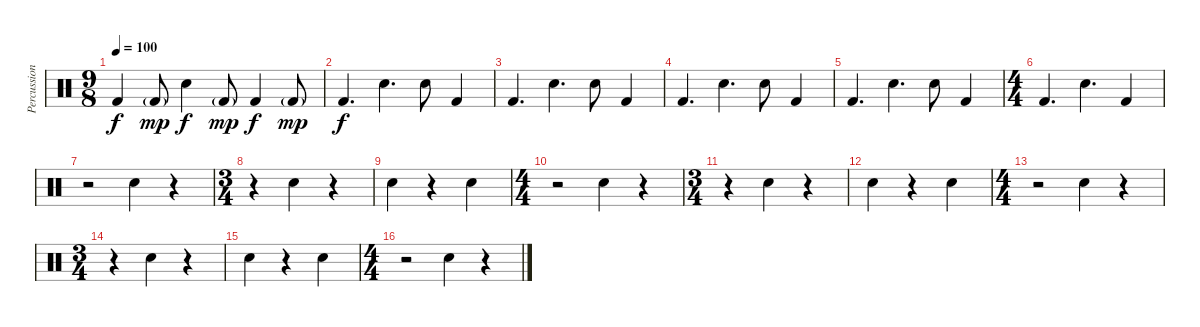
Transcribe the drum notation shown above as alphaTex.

\track ("Percussion" "Percussion") {mute instrument percussion}
\staff {score}
\articulation defaults
\ts (9 8)
\tempo 100
\clef neutral
\ks c "Kick (hit) 2".4{dy f} "Kick (hit) 2"{g}.8{dy mp} "Electric Snare (hit)".4{dy f} "Kick (hit) 2"{g}.8{dy mp} "Kick (hit) 2".4{dy f} "Kick (hit) 2"{g}.8{dy mp}
|
"Kick (hit) 2".4{d dy f} "Electric Snare (hit)".4{d} "Electric Snare (hit)".8 "Kick (hit) 2".4 |
"Kick (hit) 2".4{d} "Electric Snare (hit)".4{d} "Electric Snare (hit)".8 "Kick (hit) 2".4 |
"Kick (hit) 2".4{d} "Electric Snare (hit)".4{d} "Electric Snare (hit)".8 "Kick (hit) 2".4 |
"Kick (hit) 2".4{d} "Electric Snare (hit)".4{d} "Electric Snare (hit)".8 "Kick (hit) 2".4 |
\ts (4 4)
"Kick (hit) 2".4{d} "Electric Snare (hit)".4{d} "Kick (hit) 2".4 |
r.2 "Electric Snare (hit)".4 r.4 |
\ts (3 4)
r.4 "Electric Snare (hit)".4 r.4 |
"Electric Snare (hit)".4 r.4 "Electric Snare (hit)".4 |
\ts (4 4)
r.2 "Electric Snare (hit)".4 r.4 |
\ts (3 4)
r.4 "Electric Snare (hit)".4 r.4 |
"Electric Snare (hit)".4 r.4 "Electric Snare (hit)".4 |
\ts (4 4)
r.2 "Electric Snare (hit)".4 r.4 |
\ts (3 4)
r.4 "Electric Snare (hit)".4 r.4 |
"Electric Snare (hit)".4 r.4 "Electric Snare (hit)".4 |
\ts (4 4)
r.2 "Electric Snare (hit)".4 r.4
